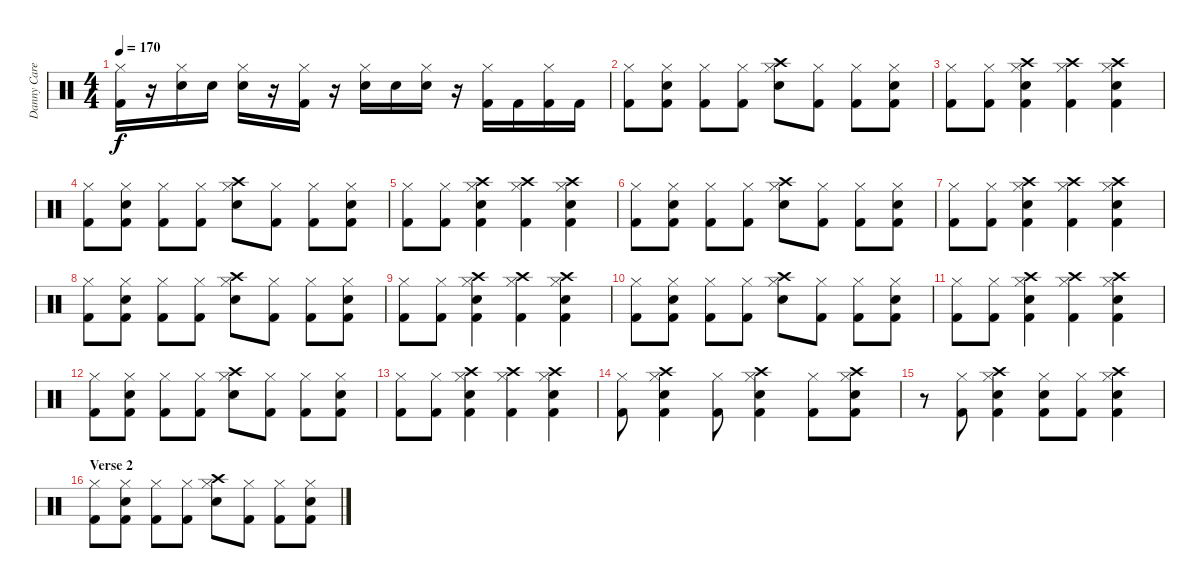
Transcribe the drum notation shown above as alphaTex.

\track ("Danny Carey" "Danny Care") {instrument percussion}
\staff {score}
\articulation defaults
\ts (4 4)
\tempo 170
\clef neutral
\ks c
("Hi-Hat (closed)" "Kick (hit) 2").16{dy f} r.16 ("Hi-Hat (closed)" "Snare (hit) 2").16 "Snare (hit) 2".16 ("Hi-Hat (closed)" "Snare (hit) 2").16 r.16 ("Hi-Hat (closed)" "Kick (hit) 2").16 r.16 ("Hi-Hat (closed)" "Snare (hit) 2").16 "Snare (hit) 2".16 ("Hi-Hat (closed)" "Snare (hit) 2").16 r.16 ("Hi-Hat (closed)" "Kick (hit) 2").16 "Kick (hit) 2".16 ("Hi-Hat (closed)" "Kick (hit) 2").16 "Kick (hit) 2".16 |
("Hi-Hat (closed)" "Kick (hit) 2").8 ("Hi-Hat (closed)" "Snare (hit) 2" "Kick (hit) 2").8 ("Hi-Hat (closed)" "Kick (hit) 2").8 ("Hi-Hat (closed)" "Kick (hit) 2").8 ("Crash high (hit)" "Hi-Hat (closed)" "Snare (hit) 2").8 ("Hi-Hat (closed)" "Kick (hit) 2").8 ("Hi-Hat (closed)" "Kick (hit) 2").8 ("Hi-Hat (closed)" "Snare (hit) 2" "Kick (hit) 2").8 |
("Hi-Hat (closed)" "Kick (hit) 2").8 ("Hi-Hat (closed)" "Kick (hit) 2").8 ("Crash high (hit)" "Hi-Hat (closed)" "Snare (hit) 2" "Kick (hit) 2").4 ("Crash high (hit)" "Hi-Hat (closed)" "Kick (hit) 2").4 ("Crash high (hit)" "Hi-Hat (closed)" "Snare (hit) 2" "Kick (hit) 2").4 |
("Hi-Hat (closed)" "Kick (hit) 2").8 ("Hi-Hat (closed)" "Snare (hit) 2" "Kick (hit) 2").8 ("Hi-Hat (closed)" "Kick (hit) 2").8 ("Hi-Hat (closed)" "Kick (hit) 2").8 ("Crash high (hit)" "Hi-Hat (closed)" "Snare (hit) 2").8 ("Hi-Hat (closed)" "Kick (hit) 2").8 ("Hi-Hat (closed)" "Kick (hit) 2").8 ("Hi-Hat (closed)" "Snare (hit) 2" "Kick (hit) 2").8 |
("Hi-Hat (closed)" "Kick (hit) 2").8 ("Hi-Hat (closed)" "Kick (hit) 2").8 ("Crash high (hit)" "Hi-Hat (closed)" "Snare (hit) 2" "Kick (hit) 2").4 ("Crash high (hit)" "Hi-Hat (closed)" "Kick (hit) 2").4 ("Crash high (hit)" "Hi-Hat (closed)" "Snare (hit) 2" "Kick (hit) 2").4 |
("Hi-Hat (closed)" "Kick (hit) 2").8 ("Hi-Hat (closed)" "Snare (hit) 2" "Kick (hit) 2").8 ("Hi-Hat (closed)" "Kick (hit) 2").8 ("Hi-Hat (closed)" "Kick (hit) 2").8 ("Crash high (hit)" "Hi-Hat (closed)" "Snare (hit) 2").8 ("Hi-Hat (closed)" "Kick (hit) 2").8 ("Hi-Hat (closed)" "Kick (hit) 2").8 ("Hi-Hat (closed)" "Snare (hit) 2" "Kick (hit) 2").8 |
("Hi-Hat (closed)" "Kick (hit) 2").8 ("Hi-Hat (closed)" "Kick (hit) 2").8 ("Crash high (hit)" "Hi-Hat (closed)" "Snare (hit) 2" "Kick (hit) 2").4 ("Crash high (hit)" "Hi-Hat (closed)" "Kick (hit) 2").4 ("Crash high (hit)" "Hi-Hat (closed)" "Snare (hit) 2" "Kick (hit) 2").4 |
("Hi-Hat (closed)" "Kick (hit) 2").8 ("Hi-Hat (closed)" "Snare (hit) 2" "Kick (hit) 2").8 ("Hi-Hat (closed)" "Kick (hit) 2").8 ("Hi-Hat (closed)" "Kick (hit) 2").8 ("Crash high (hit)" "Hi-Hat (closed)" "Snare (hit) 2").8 ("Hi-Hat (closed)" "Kick (hit) 2").8 ("Hi-Hat (closed)" "Kick (hit) 2").8 ("Hi-Hat (closed)" "Snare (hit) 2" "Kick (hit) 2").8 |
("Hi-Hat (closed)" "Kick (hit) 2").8 ("Hi-Hat (closed)" "Kick (hit) 2").8 ("Crash high (hit)" "Hi-Hat (closed)" "Snare (hit) 2" "Kick (hit) 2").4 ("Crash high (hit)" "Hi-Hat (closed)" "Kick (hit) 2").4 ("Crash high (hit)" "Hi-Hat (closed)" "Snare (hit) 2" "Kick (hit) 2").4 |
("Hi-Hat (closed)" "Kick (hit) 2").8 ("Hi-Hat (closed)" "Snare (hit) 2" "Kick (hit) 2").8 ("Hi-Hat (closed)" "Kick (hit) 2").8 ("Hi-Hat (closed)" "Kick (hit) 2").8 ("Crash high (hit)" "Hi-Hat (closed)" "Snare (hit) 2").8 ("Hi-Hat (closed)" "Kick (hit) 2").8 ("Hi-Hat (closed)" "Kick (hit) 2").8 ("Hi-Hat (closed)" "Snare (hit) 2" "Kick (hit) 2").8 |
("Hi-Hat (closed)" "Kick (hit) 2").8 ("Hi-Hat (closed)" "Kick (hit) 2").8 ("Crash high (hit)" "Hi-Hat (closed)" "Snare (hit) 2" "Kick (hit) 2").4 ("Crash high (hit)" "Hi-Hat (closed)" "Kick (hit) 2").4 ("Crash high (hit)" "Hi-Hat (closed)" "Snare (hit) 2" "Kick (hit) 2").4 |
("Hi-Hat (closed)" "Kick (hit) 2").8 ("Hi-Hat (closed)" "Snare (hit) 2" "Kick (hit) 2").8 ("Hi-Hat (closed)" "Kick (hit) 2").8 ("Hi-Hat (closed)" "Kick (hit) 2").8 ("Crash high (hit)" "Hi-Hat (closed)" "Snare (hit) 2").8 ("Hi-Hat (closed)" "Kick (hit) 2").8 ("Hi-Hat (closed)" "Kick (hit) 2").8 ("Hi-Hat (closed)" "Snare (hit) 2" "Kick (hit) 2").8 |
("Hi-Hat (closed)" "Kick (hit) 2").8 ("Hi-Hat (closed)" "Kick (hit) 2").8 ("Crash high (hit)" "Hi-Hat (closed)" "Snare (hit) 2" "Kick (hit) 2").4 ("Crash high (hit)" "Hi-Hat (closed)" "Kick (hit) 2").4 ("Crash high (hit)" "Hi-Hat (closed)" "Snare (hit) 2" "Kick (hit) 2").4 |
("Hi-Hat (closed)" "Kick (hit) 2").8 ("Crash high (hit)" "Hi-Hat (closed)" "Snare (hit) 2" "Kick (hit) 2").4 ("Hi-Hat (closed)" "Kick (hit) 2").8 ("Crash high (hit)" "Hi-Hat (closed)" "Snare (hit) 2" "Kick (hit) 2").4 ("Hi-Hat (closed)" "Kick (hit) 2").8 ("Crash high (hit)" "Hi-Hat (closed)" "Snare (hit) 2" "Kick (hit) 2").8 |
r.8 ("Hi-Hat (closed)" "Kick (hit) 2").8 ("Crash high (hit)" "Hi-Hat (closed)" "Snare (hit) 2" "Kick (hit) 2").4 ("Hi-Hat (closed)" "Snare (hit) 2" "Kick (hit) 2").8 ("Hi-Hat (closed)" "Kick (hit) 2").8 ("Crash high (hit)" "Hi-Hat (closed)" "Snare (hit) 2" "Kick (hit) 2").4 |
\section ("" "Verse 2")
("Hi-Hat (closed)" "Kick (hit) 2").8 ("Hi-Hat (closed)" "Snare (hit) 2" "Kick (hit) 2").8 ("Hi-Hat (closed)" "Kick (hit) 2").8 ("Hi-Hat (closed)" "Kick (hit) 2").8 ("Crash high (hit)" "Hi-Hat (closed)" "Snare (hit) 2").8 ("Hi-Hat (closed)" "Kick (hit) 2").8 ("Hi-Hat (closed)" "Kick (hit) 2").8 ("Hi-Hat (closed)" "Snare (hit) 2" "Kick (hit) 2").8
